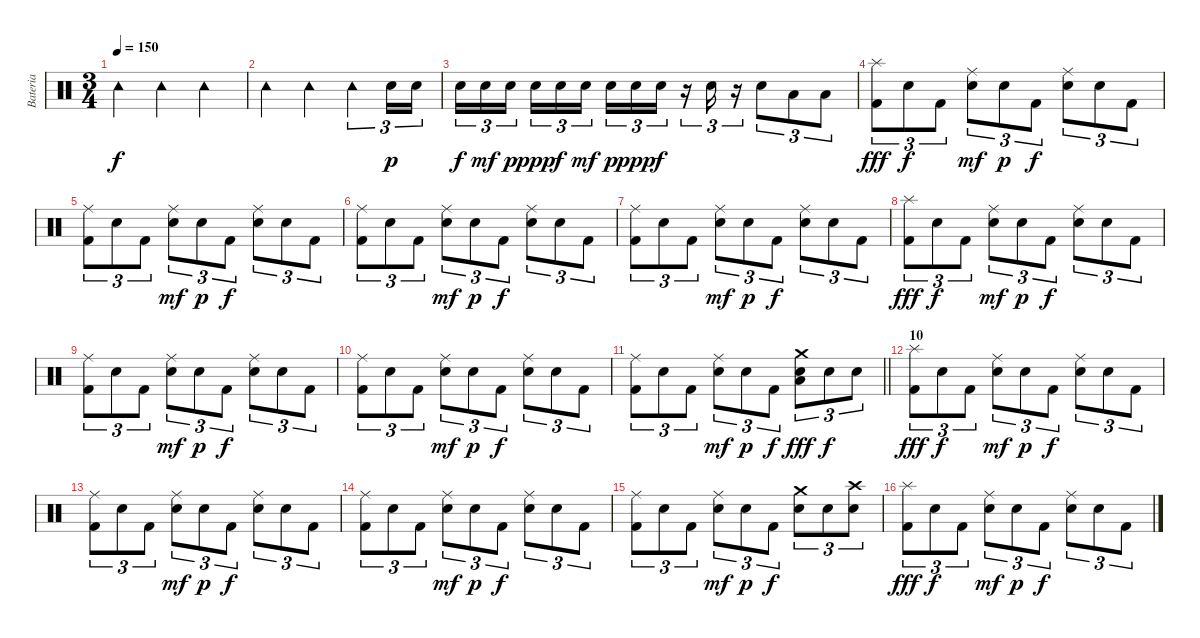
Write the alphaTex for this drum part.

\track ("Bateria" "Bateria") {instrument percussion}
\staff {score}
\articulation defaults
\ts (3 4)
\tempo 150
\clef neutral
\ks c "Tambourine (hit)".4{dy f} "Tambourine (hit)".4 "Tambourine (hit)".4
|
"Tambourine (hit)".4 "Tambourine (hit)".4 "Tambourine (hit)".4{tu (3 2)} "Electric Snare (hit)".16{tu (3 2) dy p} "Electric Snare (hit)".16{tu (3 2)} |
"Electric Snare (hit)".16{tu (3 2) dy f} "Electric Snare (hit)".16{tu (3 2) dy mf} "Electric Snare (hit)".16{tu (3 2) dy p beam splitsecondary} "Electric Snare (hit)".16{tu (3 2) dy ppp} "Electric Snare (hit)".16{tu (3 2) dy f} "Electric Snare (hit)".16{tu (3 2) dy mf} "Electric Snare (hit)".16{tu (3 2) dy p} "Electric Snare (hit)".16{tu (3 2) dy ppp} "Electric Snare (hit)".16{tu (3 2) dy f} r.16{tu (3 2)} "Electric Snare (hit)".16{tu (3 2)} r.16{tu (3 2)} "Electric Snare (hit)".8{tu (3 2)} "Low Floor Tom (hit)".8{tu (3 2)} "Low Floor Tom (hit)".8{tu (3 2)} |
("Splash (hit)" "Kick (hit) 2").8{tu (3 2) dy fff} "Snare (hit)".8{tu (3 2) dy f} "Kick (hit) 2".8{tu (3 2)} ("Ride (middle)" "Electric Snare (hit)").8{tu (3 2) dy mf} "Electric Snare (hit)".8{tu (3 2) dy p} "Kick (hit) 2".8{tu (3 2) dy f} ("Ride (middle)" "Electric Snare (hit)").8{tu (3 2)} "Snare (hit)".8{tu (3 2)} "Kick (hit) 2".8{tu (3 2)} |
("Ride (middle)" "Kick (hit) 2").8{tu (3 2)} "Snare (hit)".8{tu (3 2)} "Kick (hit) 2".8{tu (3 2)} ("Ride (middle)" "Electric Snare (hit)").8{tu (3 2) dy mf} "Electric Snare (hit)".8{tu (3 2) dy p} "Kick (hit) 2".8{tu (3 2) dy f} ("Ride (middle)" "Electric Snare (hit)").8{tu (3 2)} "Snare (hit)".8{tu (3 2)} "Kick (hit) 2".8{tu (3 2)} |
("Ride (middle)" "Kick (hit) 2").8{tu (3 2)} "Snare (hit)".8{tu (3 2)} "Kick (hit) 2".8{tu (3 2)} ("Ride (middle)" "Electric Snare (hit)").8{tu (3 2) dy mf} "Electric Snare (hit)".8{tu (3 2) dy p} "Kick (hit) 2".8{tu (3 2) dy f} ("Ride (middle)" "Electric Snare (hit)").8{tu (3 2)} "Snare (hit)".8{tu (3 2)} "Kick (hit) 2".8{tu (3 2)} |
("Ride (middle)" "Kick (hit) 2").8{tu (3 2)} "Snare (hit)".8{tu (3 2)} "Kick (hit) 2".8{tu (3 2)} ("Ride (middle)" "Electric Snare (hit)").8{tu (3 2) dy mf} "Electric Snare (hit)".8{tu (3 2) dy p} "Kick (hit) 2".8{tu (3 2) dy f} ("Ride (middle)" "Electric Snare (hit)").8{tu (3 2)} "Snare (hit)".8{tu (3 2)} "Kick (hit) 2".8{tu (3 2)} |
("Splash (hit)" "Kick (hit) 2").8{tu (3 2) dy fff} "Snare (hit)".8{tu (3 2) dy f} "Kick (hit) 2".8{tu (3 2)} ("Ride (middle)" "Electric Snare (hit)").8{tu (3 2) dy mf} "Electric Snare (hit)".8{tu (3 2) dy p} "Kick (hit) 2".8{tu (3 2) dy f} ("Ride (middle)" "Electric Snare (hit)").8{tu (3 2)} "Snare (hit)".8{tu (3 2)} "Kick (hit) 2".8{tu (3 2)} |
("Ride (middle)" "Kick (hit) 2").8{tu (3 2)} "Snare (hit)".8{tu (3 2)} "Kick (hit) 2".8{tu (3 2)} ("Ride (middle)" "Electric Snare (hit)").8{tu (3 2) dy mf} "Electric Snare (hit)".8{tu (3 2) dy p} "Kick (hit) 2".8{tu (3 2) dy f} ("Ride (middle)" "Electric Snare (hit)").8{tu (3 2)} "Snare (hit)".8{tu (3 2)} "Kick (hit) 2".8{tu (3 2)} |
("Ride (middle)" "Kick (hit) 2").8{tu (3 2)} "Snare (hit)".8{tu (3 2)} "Kick (hit) 2".8{tu (3 2)} ("Ride (middle)" "Electric Snare (hit)").8{tu (3 2) dy mf} "Electric Snare (hit)".8{tu (3 2) dy p} "Kick (hit) 2".8{tu (3 2) dy f} ("Ride (middle)" "Electric Snare (hit)").8{tu (3 2)} "Snare (hit)".8{tu (3 2)} "Kick (hit) 2".8{tu (3 2)} |
\barLineRight lightlight
("Ride (middle)" "Kick (hit) 2").8{tu (3 2)} "Snare (hit)".8{tu (3 2)} "Kick (hit) 2".8{tu (3 2)} ("Ride (middle)" "Electric Snare (hit)").8{tu (3 2) dy mf} "Electric Snare (hit)".8{tu (3 2) dy p} "Kick (hit) 2".8{tu (3 2) dy f} ("Crash medium (hit)" "Low Floor Tom (hit)" "Electric Snare (hit)").8{tu (3 2) dy fff} "Snare (hit)".8{tu (3 2) dy f} "Electric Snare (hit)".8{tu (3 2)} |
\section ("" "10")
("Splash (hit)" "Kick (hit) 2").8{tu (3 2) dy fff} "Snare (hit)".8{tu (3 2) dy f} "Kick (hit) 2".8{tu (3 2)} ("Ride (middle)" "Electric Snare (hit)").8{tu (3 2) dy mf} "Electric Snare (hit)".8{tu (3 2) dy p} "Kick (hit) 2".8{tu (3 2) dy f} ("Ride (middle)" "Electric Snare (hit)").8{tu (3 2)} "Snare (hit)".8{tu (3 2)} "Kick (hit) 2".8{tu (3 2)} |
("Ride (middle)" "Kick (hit) 2").8{tu (3 2)} "Snare (hit)".8{tu (3 2)} "Kick (hit) 2".8{tu (3 2)} ("Ride (middle)" "Electric Snare (hit)").8{tu (3 2) dy mf} "Electric Snare (hit)".8{tu (3 2) dy p} "Kick (hit) 2".8{tu (3 2) dy f} ("Ride (middle)" "Electric Snare (hit)").8{tu (3 2)} "Snare (hit)".8{tu (3 2)} "Kick (hit) 2".8{tu (3 2)} |
("Ride (middle)" "Kick (hit) 2").8{tu (3 2)} "Snare (hit)".8{tu (3 2)} "Kick (hit) 2".8{tu (3 2)} ("Ride (middle)" "Electric Snare (hit)").8{tu (3 2) dy mf} "Electric Snare (hit)".8{tu (3 2) dy p} "Kick (hit) 2".8{tu (3 2) dy f} ("Ride (middle)" "Electric Snare (hit)").8{tu (3 2)} "Snare (hit)".8{tu (3 2)} "Kick (hit) 2".8{tu (3 2)} |
("Ride (middle)" "Kick (hit) 2").8{tu (3 2)} "Snare (hit)".8{tu (3 2)} "Kick (hit) 2".8{tu (3 2)} ("Ride (middle)" "Electric Snare (hit)").8{tu (3 2) dy mf} "Electric Snare (hit)".8{tu (3 2) dy p} "Kick (hit) 2".8{tu (3 2) dy f} ("Crash medium (hit)" "Electric Snare (hit)").8{tu (3 2)} "Snare (hit)".8{tu (3 2)} ("Crash high (hit)" "Electric Snare (hit)").8{tu (3 2)} |
("Splash (hit)" "Kick (hit) 2").8{tu (3 2) dy fff} "Snare (hit)".8{tu (3 2) dy f} "Kick (hit) 2".8{tu (3 2)} ("Ride (middle)" "Electric Snare (hit)").8{tu (3 2) dy mf} "Electric Snare (hit)".8{tu (3 2) dy p} "Kick (hit) 2".8{tu (3 2) dy f} ("Ride (middle)" "Electric Snare (hit)").8{tu (3 2)} "Snare (hit)".8{tu (3 2)} "Kick (hit) 2".8{tu (3 2)}
